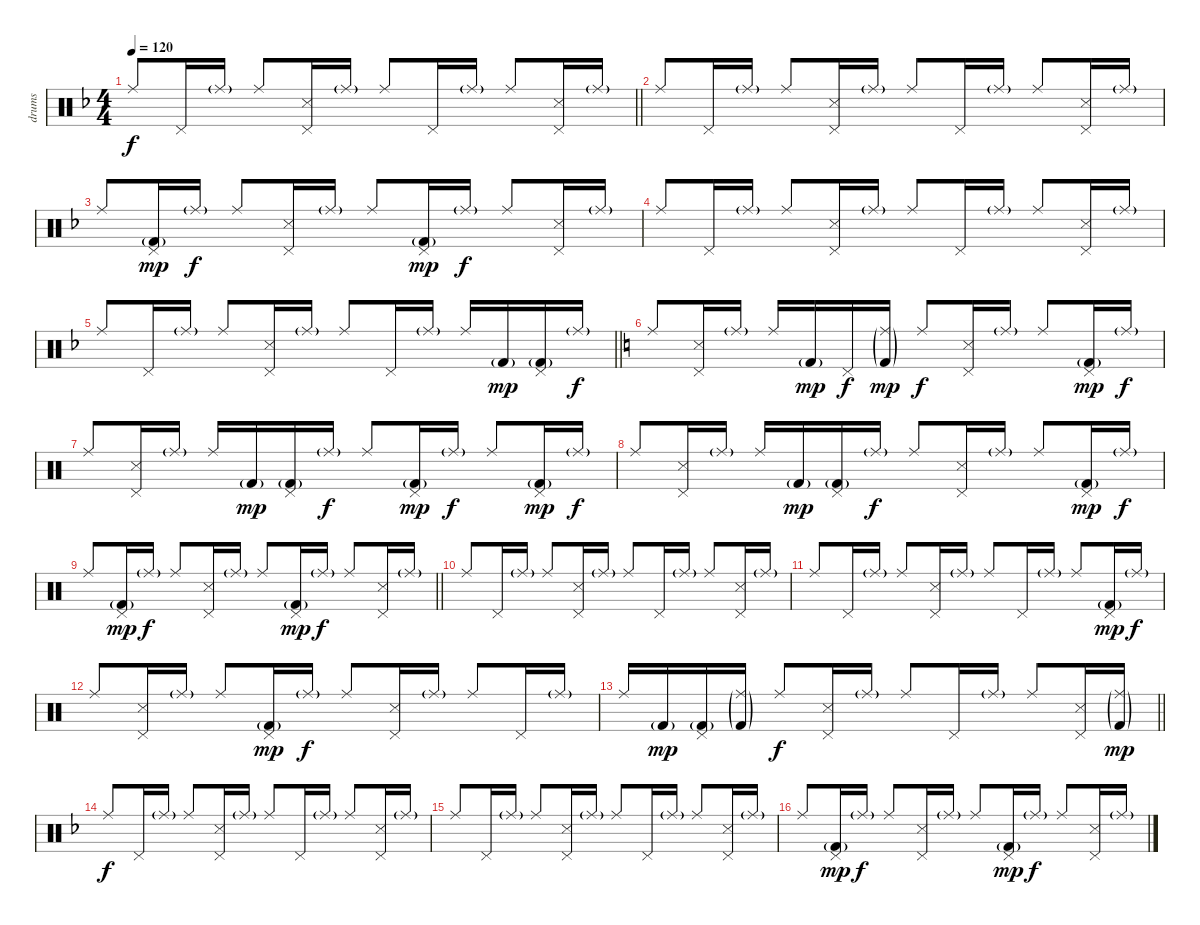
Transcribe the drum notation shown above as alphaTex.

\track ("drums" "drums") {instrument percussion}
\staff {score}
\articulation defaults
\ts (4 4)
\tempo 120
\clef neutral
\barLineRight lightlight
\ks f "Ride (middle)".8{dy f} "Pedal Hi-Hat (hit)".16 "Ride (middle)"{g}.16 "Ride (middle)".8
("Pedal Hi-Hat (hit)" "Snare (side stick) 3").16 "Ride (middle)"{g}.16 "Ride (middle)".8 "Pedal Hi-Hat (hit)".16 "Ride (middle)"{g}.16 "Ride (middle)".8 ("Pedal Hi-Hat (hit)" "Snare (side stick) 3").16 "Ride (middle)"{g}.16 |
"Ride (middle)".8 "Pedal Hi-Hat (hit)".16 "Ride (middle)"{g}.16 "Ride (middle)".8 ("Pedal Hi-Hat (hit)" "Snare (side stick) 3").16 "Ride (middle)"{g}.16 "Ride (middle)".8 "Pedal Hi-Hat (hit)".16 "Ride (middle)"{g}.16 "Ride (middle)".8 ("Pedal Hi-Hat (hit)" "Snare (side stick) 3").16 "Ride (middle)"{g}.16 |
"Ride (middle)".8 ("Pedal Hi-Hat (hit)" "Kick (hit) 2"{g}).16{dy mp} "Ride (middle)"{g}.16{dy f} "Ride (middle)".8 ("Pedal Hi-Hat (hit)" "Snare (side stick) 3").16 "Ride (middle)"{g}.16 "Ride (middle)".8 ("Pedal Hi-Hat (hit)" "Kick (hit) 2"{g}).16{dy mp} "Ride (middle)"{g}.16{dy f} "Ride (middle)".8 ("Pedal Hi-Hat (hit)" "Snare (side stick) 3").16 "Ride (middle)"{g}.16 |
"Ride (middle)".8 "Pedal Hi-Hat (hit)".16 "Ride (middle)"{g}.16 "Ride (middle)".8 ("Pedal Hi-Hat (hit)" "Snare (side stick) 3").16 "Ride (middle)"{g}.16 "Ride (middle)".8 "Pedal Hi-Hat (hit)".16 "Ride (middle)"{g}.16 "Ride (middle)".8 ("Pedal Hi-Hat (hit)" "Snare (side stick) 3").16 "Ride (middle)"{g}.16 |
\barLineRight lightlight "Ride (middle)".8 "Pedal Hi-Hat (hit)".16 "Ride (middle)"{g}.16 "Ride (middle)".8
("Pedal Hi-Hat (hit)" "Snare (side stick) 3").16 "Ride (middle)"{g}.16 "Ride (middle)".8 "Pedal Hi-Hat (hit)".16 "Ride (middle)"{g}.16 "Ride (middle)".16 "Kick (hit) 2"{g}.16{dy mp} ("Pedal Hi-Hat (hit)" "Kick (hit) 2"{g}).16 "Ride (middle)"{g}.16{dy f} |
\ks c "Ride (middle)".8
("Pedal Hi-Hat (hit)" "Snare (side stick) 3").16 "Ride (middle)"{g}.16 "Ride (middle)".16 "Kick (hit) 2"{g}.16{dy mp} "Pedal Hi-Hat (hit)".16{dy f} ("Ride (middle)"{g} "Kick (hit) 2"{g}).16{dy mp} "Ride (middle)".8{dy f} ("Pedal Hi-Hat (hit)" "Snare (side stick) 3").16 "Ride (middle)"{g}.16 "Ride (middle)".8 ("Pedal Hi-Hat (hit)" "Kick (hit) 2"{g}).16{dy mp} "Ride (middle)"{g}.16{dy f} |
"Ride (middle)".8 ("Pedal Hi-Hat (hit)" "Snare (side stick) 3").16 "Ride (middle)"{g}.16 "Ride (middle)".16 "Kick (hit) 2"{g}.16{dy mp} ("Pedal Hi-Hat (hit)" "Kick (hit) 2"{g}).16 "Ride (middle)"{g}.16{dy f} "Ride (middle)".8 ("Pedal Hi-Hat (hit)" "Kick (hit) 2"{g}).16{dy mp} "Ride (middle)"{g}.16{dy f} "Ride (middle)".8 ("Pedal Hi-Hat (hit)" "Kick (hit) 2"{g}).16{dy mp} "Ride (middle)"{g}.16{dy f} |
"Ride (middle)".8 ("Pedal Hi-Hat (hit)" "Snare (side stick) 3").16 "Ride (middle)"{g}.16 "Ride (middle)".16 "Kick (hit) 2"{g}.16{dy mp} ("Pedal Hi-Hat (hit)" "Kick (hit) 2"{g}).16 "Ride (middle)"{g}.16{dy f} "Ride (middle)".8 ("Pedal Hi-Hat (hit)" "Snare (side stick) 3").16 "Ride (middle)"{g}.16 "Ride (middle)".8 ("Pedal Hi-Hat (hit)" "Kick (hit) 2"{g}).16{dy mp} "Ride (middle)"{g}.16{dy f} |
\barLineRight lightlight "Ride (middle)".8
("Pedal Hi-Hat (hit)" "Kick (hit) 2"{g}).16{dy mp} "Ride (middle)"{g}.16{dy f} "Ride (middle)".8 ("Pedal Hi-Hat (hit)" "Snare (side stick) 3").16 "Ride (middle)"{g}.16 "Ride (middle)".8 ("Pedal Hi-Hat (hit)" "Kick (hit) 2"{g}).16{dy mp} "Ride (middle)"{g}.16{dy f} "Ride (middle)".8 ("Pedal Hi-Hat (hit)" "Snare (side stick) 3").16 "Ride (middle)"{g}.16 |
"Ride (middle)".8 "Pedal Hi-Hat (hit)".16 "Ride (middle)"{g}.16 "Ride (middle)".8 ("Pedal Hi-Hat (hit)" "Snare (side stick) 3").16 "Ride (middle)"{g}.16 "Ride (middle)".8 "Pedal Hi-Hat (hit)".16 "Ride (middle)"{g}.16 "Ride (middle)".8 ("Pedal Hi-Hat (hit)" "Snare (side stick) 3").16 "Ride (middle)"{g}.16 |
"Ride (middle)".8 "Pedal Hi-Hat (hit)".16 "Ride (middle)"{g}.16 "Ride (middle)".8 ("Pedal Hi-Hat (hit)" "Snare (side stick) 3").16 "Ride (middle)"{g}.16 "Ride (middle)".8 "Pedal Hi-Hat (hit)".16 "Ride (middle)"{g}.16 "Ride (middle)".8 ("Pedal Hi-Hat (hit)" "Kick (hit) 2"{g}).16{dy mp} "Ride (middle)"{g}.16{dy f} |
"Ride (middle)".8 ("Pedal Hi-Hat (hit)" "Snare (side stick) 3").16 "Ride (middle)"{g}.16 "Ride (middle)".8 ("Pedal Hi-Hat (hit)" "Kick (hit) 2"{g}).16{dy mp} "Ride (middle)"{g}.16{dy f} "Ride (middle)".8 ("Pedal Hi-Hat (hit)" "Snare (side stick) 3").16 "Ride (middle)"{g}.16 "Ride (middle)".8 "Pedal Hi-Hat (hit)".16 "Ride (middle)"{g}.16 |
\barLineRight lightlight "Ride (middle)".16 "Kick (hit) 2"{g}.16{dy mp}
("Pedal Hi-Hat (hit)" "Kick (hit) 2"{g}).16 ("Ride (middle)"{g} "Kick (hit) 2"{g}).16 "Ride (middle)".8{dy f} ("Pedal Hi-Hat (hit)" "Snare (side stick) 3").16 "Ride (middle)"{g}.16 "Ride (middle)".8 "Pedal Hi-Hat (hit)".16 "Ride (middle)"{g}.16 "Ride (middle)".8 ("Pedal Hi-Hat (hit)" "Snare (side stick) 3").16 ("Ride (middle)"{g} "Kick (hit) 2"{g}).16{dy mp} |
\ks f "Ride (middle)".8{dy f} "Pedal Hi-Hat (hit)".16 "Ride (middle)"{g}.16 "Ride (middle)".8
("Pedal Hi-Hat (hit)" "Snare (side stick) 3").16 "Ride (middle)"{g}.16 "Ride (middle)".8 "Pedal Hi-Hat (hit)".16 "Ride (middle)"{g}.16 "Ride (middle)".8 ("Pedal Hi-Hat (hit)" "Snare (side stick) 3").16 "Ride (middle)"{g}.16 |
"Ride (middle)".8 "Pedal Hi-Hat (hit)".16 "Ride (middle)"{g}.16 "Ride (middle)".8 ("Pedal Hi-Hat (hit)" "Snare (side stick) 3").16 "Ride (middle)"{g}.16 "Ride (middle)".8 "Pedal Hi-Hat (hit)".16 "Ride (middle)"{g}.16 "Ride (middle)".8 ("Pedal Hi-Hat (hit)" "Snare (side stick) 3").16 "Ride (middle)"{g}.16 |
"Ride (middle)".8 ("Pedal Hi-Hat (hit)" "Kick (hit) 2"{g}).16{dy mp} "Ride (middle)"{g}.16{dy f} "Ride (middle)".8 ("Pedal Hi-Hat (hit)" "Snare (side stick) 3").16 "Ride (middle)"{g}.16 "Ride (middle)".8 ("Pedal Hi-Hat (hit)" "Kick (hit) 2"{g}).16{dy mp} "Ride (middle)"{g}.16{dy f} "Ride (middle)".8 ("Pedal Hi-Hat (hit)" "Snare (side stick) 3").16 "Ride (middle)"{g}.16
